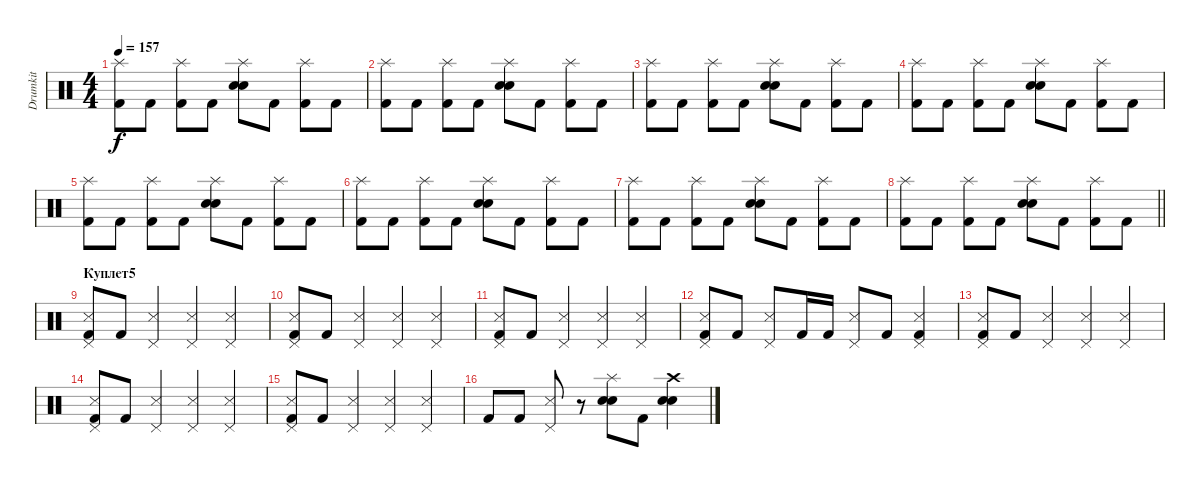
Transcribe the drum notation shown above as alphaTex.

\track ("Drumkit" "Drumkit") {instrument percussion}
\staff {score}
\articulation defaults
\ts (4 4)
\tempo 157
\clef neutral
\ks c
("Splash (hit)" "Kick (hit) 2").8{dy f} "Kick (hit) 2".8 ("Splash (hit)" "Kick (hit) 2").8 "Kick (hit) 2".8 ("Splash (hit)" "Electric Snare (hit)" "Snare (hit) 2").8 "Kick (hit) 2".8 ("Splash (hit)" "Kick (hit) 2").8 "Kick (hit) 2".8 |
("Splash (hit)" "Kick (hit) 2").8 "Kick (hit) 2".8 ("Splash (hit)" "Kick (hit) 2").8 "Kick (hit) 2".8 ("Splash (hit)" "Electric Snare (hit)" "Snare (hit) 2").8 "Kick (hit) 2".8 ("Splash (hit)" "Kick (hit) 2").8 "Kick (hit) 2".8 |
("Splash (hit)" "Kick (hit) 2").8 "Kick (hit) 2".8 ("Splash (hit)" "Kick (hit) 2").8 "Kick (hit) 2".8 ("Splash (hit)" "Electric Snare (hit)" "Snare (hit) 2").8 "Kick (hit) 2".8 ("Splash (hit)" "Kick (hit) 2").8 "Kick (hit) 2".8 |
("Splash (hit)" "Kick (hit) 2").8 "Kick (hit) 2".8 ("Splash (hit)" "Kick (hit) 2").8 "Kick (hit) 2".8 ("Splash (hit)" "Electric Snare (hit)" "Snare (hit) 2").8 "Kick (hit) 2".8 ("Splash (hit)" "Kick (hit) 2").8 "Kick (hit) 2".8 |
("Splash (hit)" "Kick (hit) 2").8 "Kick (hit) 2".8 ("Splash (hit)" "Kick (hit) 2").8 "Kick (hit) 2".8 ("Splash (hit)" "Electric Snare (hit)" "Snare (hit) 2").8 "Kick (hit) 2".8 ("Splash (hit)" "Kick (hit) 2").8 "Kick (hit) 2".8 |
("Splash (hit)" "Kick (hit) 2").8 "Kick (hit) 2".8 ("Splash (hit)" "Kick (hit) 2").8 "Kick (hit) 2".8 ("Splash (hit)" "Electric Snare (hit)" "Snare (hit) 2").8 "Kick (hit) 2".8 ("Splash (hit)" "Kick (hit) 2").8 "Kick (hit) 2".8 |
("Splash (hit)" "Kick (hit) 2").8 "Kick (hit) 2".8 ("Splash (hit)" "Kick (hit) 2").8 "Kick (hit) 2".8 ("Splash (hit)" "Electric Snare (hit)" "Snare (hit) 2").8 "Kick (hit) 2".8 ("Splash (hit)" "Kick (hit) 2").8 "Kick (hit) 2".8 |
\barLineRight lightlight
("Splash (hit)" "Kick (hit) 2").8 "Kick (hit) 2".8 ("Splash (hit)" "Kick (hit) 2").8 "Kick (hit) 2".8 ("Splash (hit)" "Electric Snare (hit)" "Snare (hit) 2").8 "Kick (hit) 2".8 ("Splash (hit)" "Kick (hit) 2").8 "Kick (hit) 2".8 |
\section ("" "Куплет5")
("Pedal Hi-Hat (hit)" "Snare (side stick) 3" "Kick (hit) 2").8 "Kick (hit) 2".8 ("Pedal Hi-Hat (hit)" "Snare (side stick) 3").4 ("Pedal Hi-Hat (hit)" "Snare (side stick) 3").4 ("Pedal Hi-Hat (hit)" "Snare (side stick) 3").4 |
("Pedal Hi-Hat (hit)" "Snare (side stick) 3" "Kick (hit) 2").8 "Kick (hit) 2".8 ("Pedal Hi-Hat (hit)" "Snare (side stick) 3").4 ("Pedal Hi-Hat (hit)" "Snare (side stick) 3").4 ("Pedal Hi-Hat (hit)" "Snare (side stick) 3").4 |
("Pedal Hi-Hat (hit)" "Snare (side stick) 3" "Kick (hit) 2").8 "Kick (hit) 2".8 ("Pedal Hi-Hat (hit)" "Snare (side stick) 3").4 ("Pedal Hi-Hat (hit)" "Snare (side stick) 3").4 ("Pedal Hi-Hat (hit)" "Snare (side stick) 3").4 |
("Pedal Hi-Hat (hit)" "Snare (side stick) 3" "Kick (hit) 2").8 "Kick (hit) 2".8 ("Pedal Hi-Hat (hit)" "Snare (side stick) 3").8 "Kick (hit) 2".16 "Kick (hit) 2".16 ("Pedal Hi-Hat (hit)" "Snare (side stick) 3").8 "Kick (hit) 2".8 ("Pedal Hi-Hat (hit)" "Snare (side stick) 3" "Kick (hit) 2").4 |
("Pedal Hi-Hat (hit)" "Snare (side stick) 3" "Kick (hit) 2").8 "Kick (hit) 2".8 ("Pedal Hi-Hat (hit)" "Snare (side stick) 3").4 ("Pedal Hi-Hat (hit)" "Snare (side stick) 3").4 ("Pedal Hi-Hat (hit)" "Snare (side stick) 3").4 |
("Pedal Hi-Hat (hit)" "Snare (side stick) 3" "Kick (hit) 2").8 "Kick (hit) 2".8 ("Pedal Hi-Hat (hit)" "Snare (side stick) 3").4 ("Pedal Hi-Hat (hit)" "Snare (side stick) 3").4 ("Pedal Hi-Hat (hit)" "Snare (side stick) 3").4 |
("Pedal Hi-Hat (hit)" "Snare (side stick) 3" "Kick (hit) 2").8 "Kick (hit) 2".8 ("Pedal Hi-Hat (hit)" "Snare (side stick) 3").4 ("Pedal Hi-Hat (hit)" "Snare (side stick) 3").4 ("Pedal Hi-Hat (hit)" "Snare (side stick) 3").4 |
"Kick (hit) 2".8 "Kick (hit) 2".8 ("Pedal Hi-Hat (hit)" "Snare (side stick) 3").8 r.8 ("Splash (hit)" "Electric Snare (hit)" "Snare (hit) 2").8 "Kick (hit) 2".8 ("Crash high (hit)" "Electric Snare (hit)" "Snare (hit) 2").4
